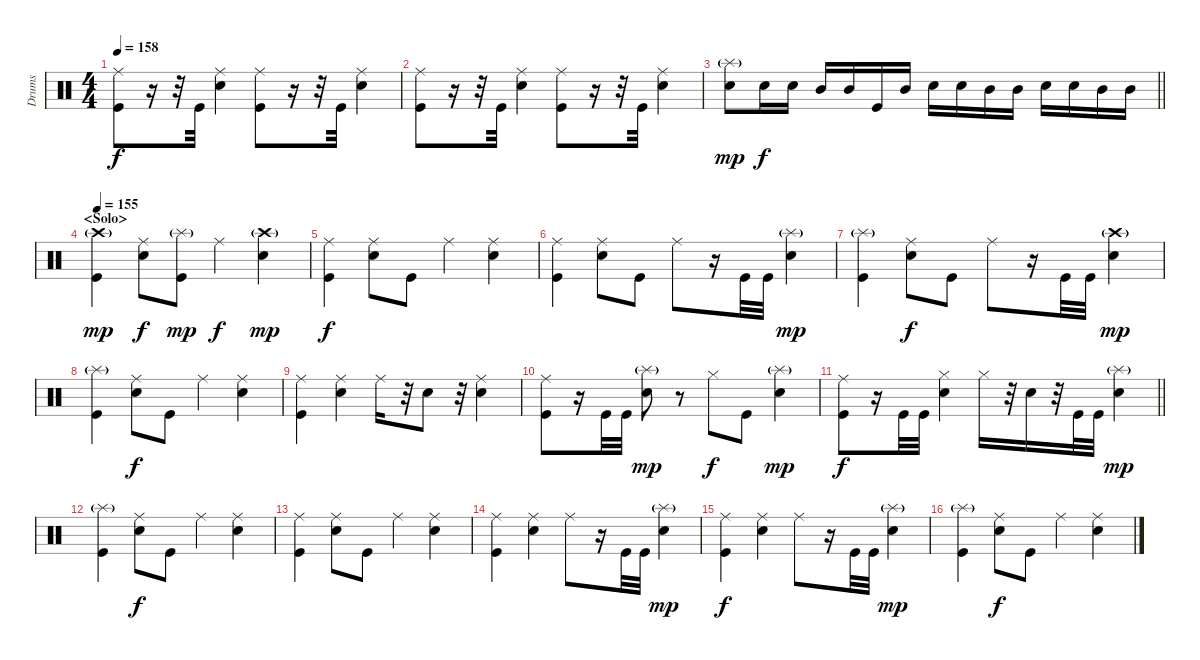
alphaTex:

\track ("Drums" "Drums") {instrument percussion}
\staff {score}
\articulation defaults
\ts (4 4)
\tempo 158
\clef neutral
\ks c
("Ride (middle)" "Kick (hit)").8{dy f} r.16 r.32 "Kick (hit)".32 ("Ride (middle)" "Snare (hit) 2").4 ("Ride (middle)" "Kick (hit)").8 r.16 r.32 "Kick (hit)".32 ("Ride (middle)" "Snare (hit) 2").4 |
("Ride (middle)" "Kick (hit)").8 r.16 r.32 "Kick (hit)".32 ("Ride (middle)" "Snare (hit) 2").4 ("Ride (middle)" "Kick (hit)").8 r.16 r.32 "Kick (hit)".32 ("Ride (middle)" "Snare (hit) 2").4 |
\barLineRight lightlight
("Splash (hit)"{g} "Snare (hit) 2").8{dy mp} "Snare (hit) 2".16{dy f} "Snare (hit) 2".16 "Mid Tom (hit)".16 "Mid Tom (hit)".16 "Kick (hit)".16 "Mid Tom (hit)".16 "Snare (hit) 2".16 "Snare (hit) 2".16 "Mid Tom (hit)".16 "Mid Tom (hit)".16 "Snare (hit) 2".16 "Snare (hit) 2".16 "Mid Tom (hit)".16 "Mid Tom (hit)".16 |
\section ("" "<Solo>")
\tempo 155
("Crash high (hit)"{g} "Kick (hit)").4{dy mp} ("Ride (middle)" "Snare (hit) 2").8{dy f} ("Splash (hit)"{g} "Kick (hit)").8{dy mp} "Ride (middle)".4{dy f} ("Crash high (hit)"{g} "Snare (hit) 2").4{dy mp} |
("Ride (middle)" "Kick (hit)").4{dy f} ("Ride (middle)" "Snare (hit) 2").8 "Kick (hit)".8 "Ride (middle)".4 ("Ride (middle)" "Snare (hit) 2").4 |
("Ride (middle)" "Kick (hit)").4 ("Ride (middle)" "Snare (hit) 2").8 "Kick (hit)".8 "Ride (middle)".8 r.16 "Kick (hit)".32 "Kick (hit)".32 ("Splash (hit)"{g} "Snare (hit) 2").4{dy mp} |
("Splash (hit)"{g} "Kick (hit)").4 ("Ride (middle)" "Snare (hit) 2").8{dy f} "Kick (hit)".8 "Ride (middle)".8 r.16 "Kick (hit)".32 "Kick (hit)".32 ("Crash high (hit)"{g} "Snare (hit) 2").4{dy mp} |
("Splash (hit)"{g} "Kick (hit)").4 ("Ride (middle)" "Snare (hit) 2").8{dy f} "Kick (hit)".8 "Ride (middle)".4 ("Ride (middle)" "Snare (hit) 2").4 |
("Ride (middle)" "Kick (hit)").4 ("Ride (middle)" "Snare (hit) 2").4 "Ride (middle)".16 r.32 "Snare (hit) 2".8 r.32 ("Ride (middle)" "Snare (hit) 2").4 |
("Ride (middle)" "Kick (hit)").8 r.16 "Kick (hit)".32 "Kick (hit)".32 ("Splash (hit)"{g} "Snare (hit) 2").8{dy mp} r.8 "Hi-Hat (closed)".8{dy f} "Kick (hit)".8 ("Splash (hit)"{g} "Snare (hit) 2").4{dy mp} |
\barLineRight lightlight
("Ride (middle)" "Kick (hit)").8{dy f} r.16 "Kick (hit)".32 "Kick (hit)".32 ("Hi-Hat (closed)" "Snare (hit) 2").4 "Hi-Hat (closed)".16 r.32 "Snare (hit) 2".16 r.32 "Kick (hit)".32 "Kick (hit)".32 ("Splash (hit)"{g} "Snare (hit) 2").4{dy mp} |
\section ("" "")
("Splash (hit)"{g} "Kick (hit)").4 ("Ride (middle)" "Snare (hit) 2").8{dy f} "Kick (hit)".8 "Ride (middle)".4 ("Ride (middle)" "Snare (hit) 2").4 |
("Ride (middle)" "Kick (hit)").4 ("Ride (middle)" "Snare (hit) 2").8 "Kick (hit)".8 "Ride (middle)".4 ("Ride (middle)" "Snare (hit) 2").4 |
("Ride (middle)" "Kick (hit)").4 ("Ride (middle)" "Snare (hit) 2").4 "Ride (middle)".8 r.16 "Kick (hit)".32 "Kick (hit)".32 ("Splash (hit)"{g} "Snare (hit) 2").4{dy mp} |
("Ride (middle)" "Kick (hit)").4{dy f} ("Ride (middle)" "Snare (hit) 2").4 "Ride (middle)".8 r.16 "Kick (hit)".32 "Kick (hit)".32 ("Splash (hit)"{g} "Snare (hit) 2").4{dy mp} |
("Splash (hit)"{g} "Kick (hit)").4 ("Ride (middle)" "Snare (hit) 2").8{dy f} "Kick (hit)".8 "Ride (middle)".4 ("Ride (middle)" "Snare (hit) 2").4
